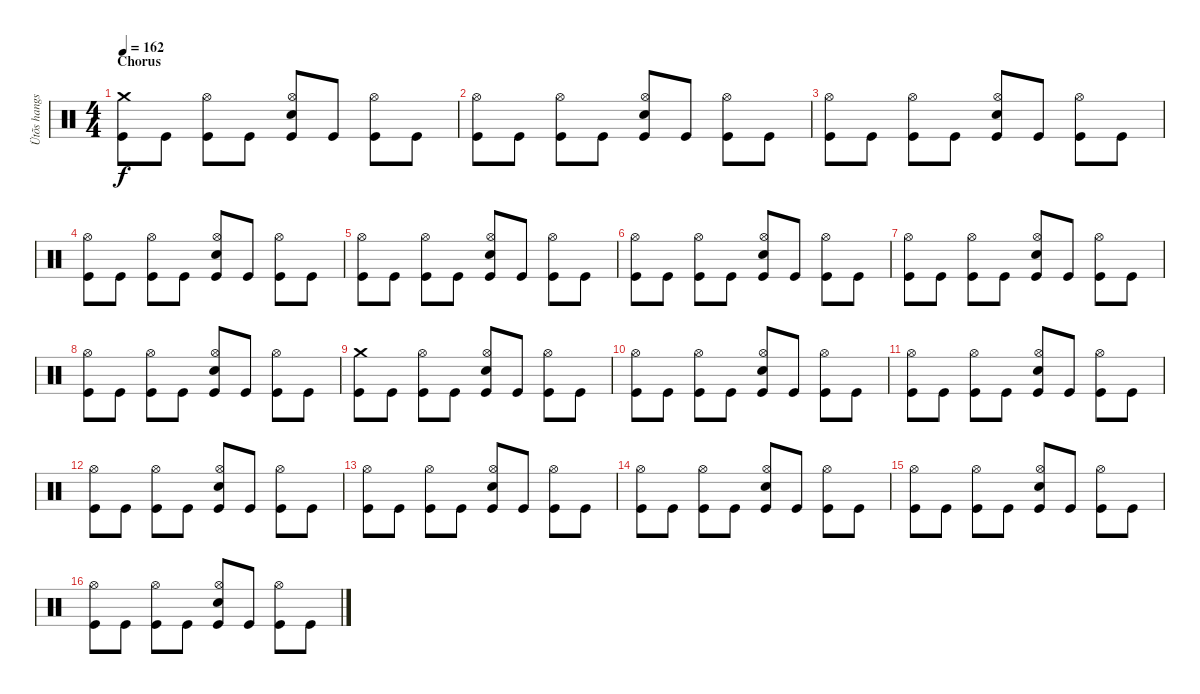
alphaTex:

\track ("Ütõs hangszer" "Ütõs hangs") {instrument percussion}
\staff {score}
\articulation defaults
\ts (4 4)
\section ("" "Chorus")
\tempo 162
\clef neutral
\ks c
("Crash medium (hit)" "Kick (hit)").8{dy f} "Kick (hit)".8 ("Hi-Hat (open)" "Kick (hit)").8 "Kick (hit)".8 ("Hi-Hat (open)" "Electric Snare (hit)" "Kick (hit)").8 "Kick (hit)".8 ("Hi-Hat (open)" "Kick (hit)").8 "Kick (hit)".8 |
("Hi-Hat (open)" "Kick (hit)").8 "Kick (hit)".8 ("Hi-Hat (open)" "Kick (hit)").8 "Kick (hit)".8 ("Hi-Hat (open)" "Electric Snare (hit)" "Kick (hit)").8 "Kick (hit)".8 ("Hi-Hat (open)" "Kick (hit)").8 "Kick (hit)".8 |
("Hi-Hat (open)" "Kick (hit)").8 "Kick (hit)".8 ("Hi-Hat (open)" "Kick (hit)").8 "Kick (hit)".8 ("Hi-Hat (open)" "Electric Snare (hit)" "Kick (hit)").8 "Kick (hit)".8 ("Hi-Hat (open)" "Kick (hit)").8 "Kick (hit)".8 |
("Hi-Hat (open)" "Kick (hit)").8 "Kick (hit)".8 ("Hi-Hat (open)" "Kick (hit)").8 "Kick (hit)".8 ("Hi-Hat (open)" "Electric Snare (hit)" "Kick (hit)").8 "Kick (hit)".8 ("Hi-Hat (open)" "Kick (hit)").8 "Kick (hit)".8 |
("Hi-Hat (open)" "Kick (hit)").8 "Kick (hit)".8 ("Hi-Hat (open)" "Kick (hit)").8 "Kick (hit)".8 ("Hi-Hat (open)" "Electric Snare (hit)" "Kick (hit)").8 "Kick (hit)".8 ("Hi-Hat (open)" "Kick (hit)").8 "Kick (hit)".8 |
("Hi-Hat (open)" "Kick (hit)").8 "Kick (hit)".8 ("Hi-Hat (open)" "Kick (hit)").8 "Kick (hit)".8 ("Hi-Hat (open)" "Electric Snare (hit)" "Kick (hit)").8 "Kick (hit)".8 ("Hi-Hat (open)" "Kick (hit)").8 "Kick (hit)".8 |
("Hi-Hat (open)" "Kick (hit)").8 "Kick (hit)".8 ("Hi-Hat (open)" "Kick (hit)").8 "Kick (hit)".8 ("Hi-Hat (open)" "Electric Snare (hit)" "Kick (hit)").8 "Kick (hit)".8 ("Hi-Hat (open)" "Kick (hit)").8 "Kick (hit)".8 |
("Hi-Hat (open)" "Kick (hit)").8 "Kick (hit)".8 ("Hi-Hat (open)" "Kick (hit)").8 "Kick (hit)".8 ("Hi-Hat (open)" "Electric Snare (hit)" "Kick (hit)").8 "Kick (hit)".8 ("Hi-Hat (open)" "Kick (hit)").8 "Kick (hit)".8 |
("Crash medium (hit)" "Kick (hit)").8 "Kick (hit)".8 ("Hi-Hat (open)" "Kick (hit)").8 "Kick (hit)".8 ("Hi-Hat (open)" "Electric Snare (hit)" "Kick (hit)").8 "Kick (hit)".8 ("Hi-Hat (open)" "Kick (hit)").8 "Kick (hit)".8 |
("Hi-Hat (open)" "Kick (hit)").8 "Kick (hit)".8 ("Hi-Hat (open)" "Kick (hit)").8 "Kick (hit)".8 ("Hi-Hat (open)" "Electric Snare (hit)" "Kick (hit)").8 "Kick (hit)".8 ("Hi-Hat (open)" "Kick (hit)").8 "Kick (hit)".8 |
("Hi-Hat (open)" "Kick (hit)").8 "Kick (hit)".8 ("Hi-Hat (open)" "Kick (hit)").8 "Kick (hit)".8 ("Hi-Hat (open)" "Electric Snare (hit)" "Kick (hit)").8 "Kick (hit)".8 ("Hi-Hat (open)" "Kick (hit)").8 "Kick (hit)".8 |
("Hi-Hat (open)" "Kick (hit)").8 "Kick (hit)".8 ("Hi-Hat (open)" "Kick (hit)").8 "Kick (hit)".8 ("Hi-Hat (open)" "Electric Snare (hit)" "Kick (hit)").8 "Kick (hit)".8 ("Hi-Hat (open)" "Kick (hit)").8 "Kick (hit)".8 |
("Hi-Hat (open)" "Kick (hit)").8 "Kick (hit)".8 ("Hi-Hat (open)" "Kick (hit)").8 "Kick (hit)".8 ("Hi-Hat (open)" "Electric Snare (hit)" "Kick (hit)").8 "Kick (hit)".8 ("Hi-Hat (open)" "Kick (hit)").8 "Kick (hit)".8 |
("Hi-Hat (open)" "Kick (hit)").8 "Kick (hit)".8 ("Hi-Hat (open)" "Kick (hit)").8 "Kick (hit)".8 ("Hi-Hat (open)" "Electric Snare (hit)" "Kick (hit)").8 "Kick (hit)".8 ("Hi-Hat (open)" "Kick (hit)").8 "Kick (hit)".8 |
("Hi-Hat (open)" "Kick (hit)").8 "Kick (hit)".8 ("Hi-Hat (open)" "Kick (hit)").8 "Kick (hit)".8 ("Hi-Hat (open)" "Electric Snare (hit)" "Kick (hit)").8 "Kick (hit)".8 ("Hi-Hat (open)" "Kick (hit)").8 "Kick (hit)".8 |
("Hi-Hat (open)" "Kick (hit)").8 "Kick (hit)".8 ("Hi-Hat (open)" "Kick (hit)").8 "Kick (hit)".8 ("Hi-Hat (open)" "Electric Snare (hit)" "Kick (hit)").8 "Kick (hit)".8 ("Hi-Hat (open)" "Kick (hit)").8 "Kick (hit)".8
